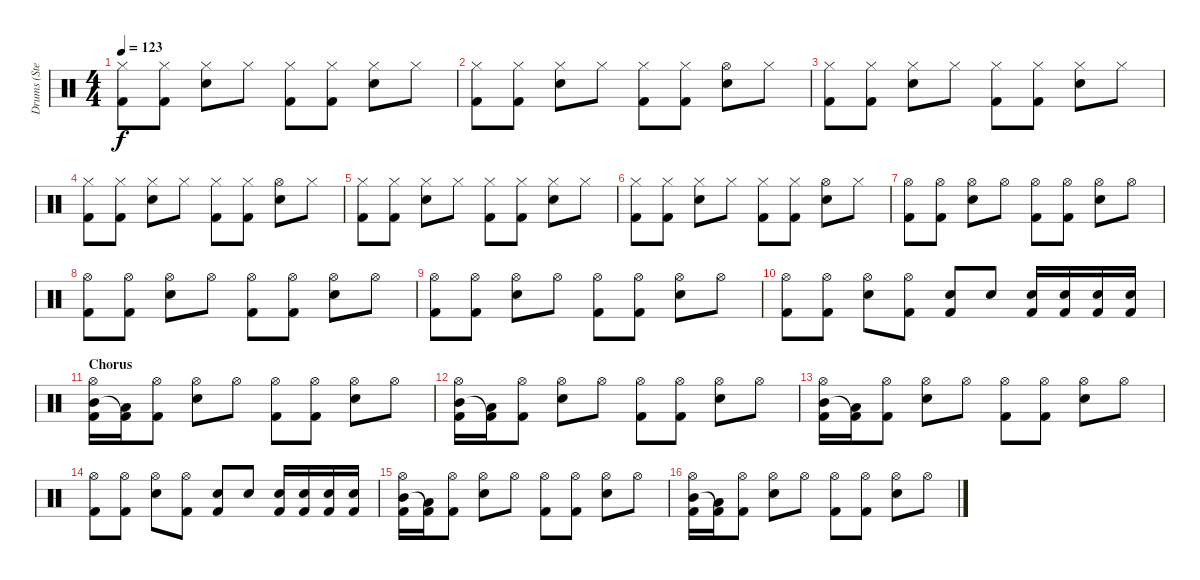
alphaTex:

\track ("Drums (Steve)" "Drums (Ste") {instrument percussion}
\staff {score}
\articulation defaults
\ts (4 4)
\tempo 123
\clef neutral
\ks c
("Hi-Hat (closed)" "Kick (hit) 2").8{dy f} ("Hi-Hat (closed)" "Kick (hit) 2").8 ("Hi-Hat (closed)" "Snare (hit) 2").8 "Hi-Hat (closed)".8 ("Hi-Hat (closed)" "Kick (hit) 2").8 ("Hi-Hat (closed)" "Kick (hit) 2").8 ("Hi-Hat (closed)" "Snare (hit) 2").8 "Hi-Hat (closed)".8 |
("Hi-Hat (closed)" "Kick (hit) 2").8 ("Hi-Hat (closed)" "Kick (hit) 2").8 ("Hi-Hat (closed)" "Snare (hit) 2").8 "Hi-Hat (closed)".8 ("Hi-Hat (closed)" "Kick (hit) 2").8 ("Hi-Hat (closed)" "Kick (hit) 2").8 ("Hi-Hat (open)" "Snare (hit) 2").8 "Hi-Hat (closed)".8 |
("Hi-Hat (closed)" "Kick (hit) 2").8 ("Hi-Hat (closed)" "Kick (hit) 2").8 ("Hi-Hat (closed)" "Snare (hit) 2").8 "Hi-Hat (closed)".8 ("Hi-Hat (closed)" "Kick (hit) 2").8 ("Hi-Hat (closed)" "Kick (hit) 2").8 ("Hi-Hat (closed)" "Snare (hit) 2").8 "Hi-Hat (closed)".8 |
("Hi-Hat (closed)" "Kick (hit) 2").8 ("Hi-Hat (closed)" "Kick (hit) 2").8 ("Hi-Hat (closed)" "Snare (hit) 2").8 "Hi-Hat (closed)".8 ("Hi-Hat (closed)" "Kick (hit) 2").8 ("Hi-Hat (closed)" "Kick (hit) 2").8 ("Hi-Hat (open)" "Snare (hit) 2").8 "Hi-Hat (closed)".8 |
("Hi-Hat (closed)" "Kick (hit) 2").8 ("Hi-Hat (closed)" "Kick (hit) 2").8 ("Hi-Hat (closed)" "Snare (hit) 2").8 "Hi-Hat (closed)".8 ("Hi-Hat (closed)" "Kick (hit) 2").8 ("Hi-Hat (closed)" "Kick (hit) 2").8 ("Hi-Hat (closed)" "Snare (hit) 2").8 "Hi-Hat (closed)".8 |
("Hi-Hat (closed)" "Kick (hit) 2").8 ("Hi-Hat (closed)" "Kick (hit) 2").8 ("Hi-Hat (closed)" "Snare (hit) 2").8 "Hi-Hat (closed)".8 ("Hi-Hat (closed)" "Kick (hit) 2").8 ("Hi-Hat (closed)" "Kick (hit) 2").8 ("Hi-Hat (open)" "Snare (hit) 2").8 "Hi-Hat (closed)".8 |
("Hi-Hat (open)" "Kick (hit) 2").8 ("Hi-Hat (open)" "Kick (hit) 2").8 ("Hi-Hat (open)" "Snare (hit) 2").8 "Hi-Hat (open)".8 ("Hi-Hat (open)" "Kick (hit) 2").8 ("Hi-Hat (open)" "Kick (hit) 2").8 ("Hi-Hat (open)" "Snare (hit) 2").8 "Hi-Hat (open)".8 |
("Hi-Hat (open)" "Kick (hit) 2").8 ("Hi-Hat (open)" "Kick (hit) 2").8 ("Hi-Hat (open)" "Snare (hit) 2").8 "Hi-Hat (open)".8 ("Hi-Hat (open)" "Kick (hit) 2").8 ("Hi-Hat (open)" "Kick (hit) 2").8 ("Hi-Hat (open)" "Snare (hit) 2").8 "Hi-Hat (open)".8 |
("Hi-Hat (open)" "Kick (hit) 2").8 ("Hi-Hat (open)" "Kick (hit) 2").8 ("Hi-Hat (open)" "Snare (hit) 2").8 "Hi-Hat (open)".8 ("Hi-Hat (open)" "Kick (hit) 2").8 ("Hi-Hat (open)" "Kick (hit) 2").8 ("Hi-Hat (open)" "Snare (hit) 2").8 "Hi-Hat (open)".8 |
("Hi-Hat (open)" "Kick (hit) 2").8 ("Hi-Hat (open)" "Kick (hit) 2").8 ("Hi-Hat (open)" "Snare (hit) 2").8 ("Hi-Hat (open)" "Kick (hit) 2").8 ("Snare (hit) 2" "Kick (hit) 2").8 "Snare (hit) 2".8 ("Snare (hit) 2" "Kick (hit) 2").16 ("Snare (hit) 2" "Kick (hit) 2").16 ("Snare (hit) 2" "Kick (hit) 2").16 ("Snare (hit) 2" "Kick (hit) 2").16 |
\section ("" "Chorus")
("Hi-Hat (open)" "Mid Tom (hit)" "Kick (hit) 2").16 ("Low Tom (hit)" "Kick (hit) 2"{t}).16 ("Hi-Hat (open)" "Kick (hit) 2").8 ("Hi-Hat (open)" "Snare (hit) 2").8 "Hi-Hat (open)".8 ("Hi-Hat (open)" "Kick (hit) 2").8 ("Hi-Hat (open)" "Kick (hit) 2").8 ("Hi-Hat (open)" "Snare (hit) 2").8 "Hi-Hat (open)".8 |
("Hi-Hat (open)" "Mid Tom (hit)" "Kick (hit) 2").16 ("Low Tom (hit)" "Kick (hit) 2"{t}).16 ("Hi-Hat (open)" "Kick (hit) 2").8 ("Hi-Hat (open)" "Snare (hit) 2").8 "Hi-Hat (open)".8 ("Hi-Hat (open)" "Kick (hit) 2").8 ("Hi-Hat (open)" "Kick (hit) 2").8 ("Hi-Hat (open)" "Snare (hit) 2").8 "Hi-Hat (open)".8 |
("Hi-Hat (open)" "Mid Tom (hit)" "Kick (hit) 2").16 ("Low Tom (hit)" "Kick (hit) 2"{t}).16 ("Hi-Hat (open)" "Kick (hit) 2").8 ("Hi-Hat (open)" "Snare (hit) 2").8 "Hi-Hat (open)".8 ("Hi-Hat (open)" "Kick (hit) 2").8 ("Hi-Hat (open)" "Kick (hit) 2").8 ("Hi-Hat (open)" "Snare (hit) 2").8 "Hi-Hat (open)".8 |
("Hi-Hat (open)" "Kick (hit) 2").8 ("Hi-Hat (open)" "Kick (hit) 2").8 ("Hi-Hat (open)" "Snare (hit) 2").8 ("Hi-Hat (open)" "Kick (hit) 2").8 ("Snare (hit) 2" "Kick (hit) 2").8 "Snare (hit) 2".8 ("Snare (hit) 2" "Kick (hit) 2").16 ("Snare (hit) 2" "Kick (hit) 2").16 ("Snare (hit) 2" "Kick (hit) 2").16 ("Snare (hit) 2" "Kick (hit) 2").16 |
("Hi-Hat (open)" "Mid Tom (hit)" "Kick (hit) 2").16 ("Low Tom (hit)" "Kick (hit) 2"{t}).16 ("Hi-Hat (open)" "Kick (hit) 2").8 ("Hi-Hat (open)" "Snare (hit) 2").8 "Hi-Hat (open)".8 ("Hi-Hat (open)" "Kick (hit) 2").8 ("Hi-Hat (open)" "Kick (hit) 2").8 ("Hi-Hat (open)" "Snare (hit) 2").8 "Hi-Hat (open)".8 |
("Hi-Hat (open)" "Mid Tom (hit)" "Kick (hit) 2").16 ("Low Tom (hit)" "Kick (hit) 2"{t}).16 ("Hi-Hat (open)" "Kick (hit) 2").8 ("Hi-Hat (open)" "Snare (hit) 2").8 "Hi-Hat (open)".8 ("Hi-Hat (open)" "Kick (hit) 2").8 ("Hi-Hat (open)" "Kick (hit) 2").8 ("Hi-Hat (open)" "Snare (hit) 2").8 "Hi-Hat (open)".8
